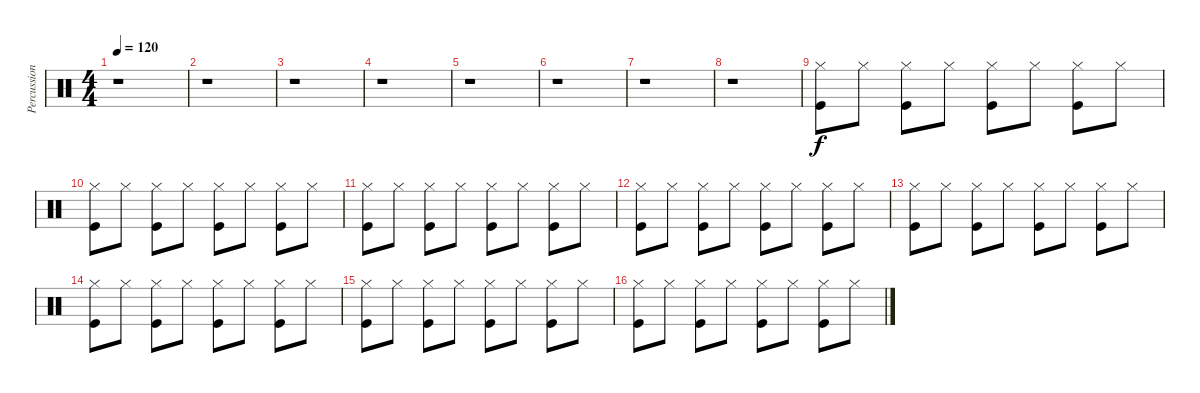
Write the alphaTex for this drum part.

\track ("Percussion" "Percussion") {instrument percussion}
\staff {score}
\articulation defaults
\ts (4 4)
\tempo 120
\clef neutral
\ks c
r.1{dy f} |
r.1 |
r.1 |
r.1 |
r.1 |
r.1 |
r.1 |
r.1 |
("Kick (hit)" "Hi-Hat (closed)").8 "Hi-Hat (closed)".8 ("Kick (hit)" "Hi-Hat (closed)").8 "Hi-Hat (closed)".8 ("Kick (hit)" "Hi-Hat (closed)").8 "Hi-Hat (closed)".8 ("Kick (hit)" "Hi-Hat (closed)").8 "Hi-Hat (closed)".8 |
("Kick (hit)" "Hi-Hat (closed)").8 "Hi-Hat (closed)".8 ("Kick (hit)" "Hi-Hat (closed)").8 "Hi-Hat (closed)".8 ("Kick (hit)" "Hi-Hat (closed)").8 "Hi-Hat (closed)".8 ("Kick (hit)" "Hi-Hat (closed)").8 "Hi-Hat (closed)".8 |
("Kick (hit)" "Hi-Hat (closed)").8 "Hi-Hat (closed)".8 ("Kick (hit)" "Hi-Hat (closed)").8 "Hi-Hat (closed)".8 ("Kick (hit)" "Hi-Hat (closed)").8 "Hi-Hat (closed)".8 ("Kick (hit)" "Hi-Hat (closed)").8 "Hi-Hat (closed)".8 |
("Kick (hit)" "Hi-Hat (closed)").8 "Hi-Hat (closed)".8 ("Kick (hit)" "Hi-Hat (closed)").8 "Hi-Hat (closed)".8 ("Kick (hit)" "Hi-Hat (closed)").8 "Hi-Hat (closed)".8 ("Kick (hit)" "Hi-Hat (closed)").8 "Hi-Hat (closed)".8 |
("Kick (hit)" "Hi-Hat (closed)").8 "Hi-Hat (closed)".8 ("Kick (hit)" "Hi-Hat (closed)").8 "Hi-Hat (closed)".8 ("Kick (hit)" "Hi-Hat (closed)").8 "Hi-Hat (closed)".8 ("Kick (hit)" "Hi-Hat (closed)").8 "Hi-Hat (closed)".8 |
("Kick (hit)" "Hi-Hat (closed)").8 "Hi-Hat (closed)".8 ("Kick (hit)" "Hi-Hat (closed)").8 "Hi-Hat (closed)".8 ("Kick (hit)" "Hi-Hat (closed)").8 "Hi-Hat (closed)".8 ("Kick (hit)" "Hi-Hat (closed)").8 "Hi-Hat (closed)".8 |
("Kick (hit)" "Hi-Hat (closed)").8 "Hi-Hat (closed)".8 ("Kick (hit)" "Hi-Hat (closed)").8 "Hi-Hat (closed)".8 ("Kick (hit)" "Hi-Hat (closed)").8 "Hi-Hat (closed)".8 ("Kick (hit)" "Hi-Hat (closed)").8 "Hi-Hat (closed)".8 |
("Kick (hit)" "Hi-Hat (closed)").8 "Hi-Hat (closed)".8 ("Kick (hit)" "Hi-Hat (closed)").8 "Hi-Hat (closed)".8 ("Kick (hit)" "Hi-Hat (closed)").8 "Hi-Hat (closed)".8 ("Kick (hit)" "Hi-Hat (closed)").8 "Hi-Hat (closed)".8
